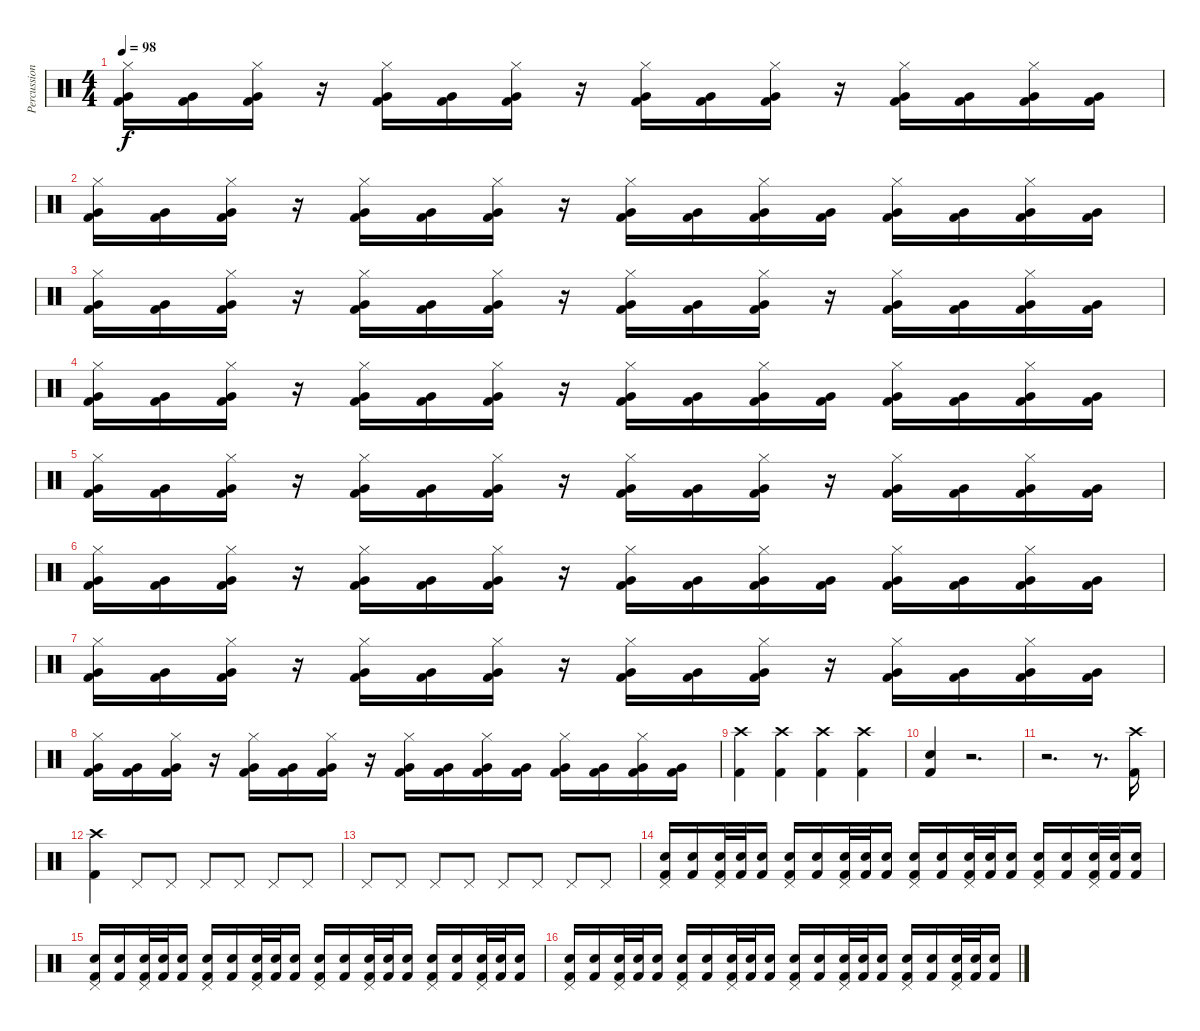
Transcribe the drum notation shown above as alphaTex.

\track ("Percussion" "Percussion") {instrument percussion}
\staff {score}
\articulation defaults
\ts (4 4)
\tempo 98
\clef neutral
\ks c
("Hi-Hat (closed)" "Very Low Tom (hit)" "Kick (hit) 2").16{dy f} ("Very Low Tom (hit)" "Kick (hit) 2").16 ("Hi-Hat (closed)" "Very Low Tom (hit)" "Kick (hit) 2").16 r.16 ("Hi-Hat (closed)" "Very Low Tom (hit)" "Kick (hit) 2").16 ("Very Low Tom (hit)" "Kick (hit) 2").16 ("Hi-Hat (closed)" "Very Low Tom (hit)" "Kick (hit) 2").16 r.16 ("Hi-Hat (closed)" "Very Low Tom (hit)" "Kick (hit) 2").16 ("Very Low Tom (hit)" "Kick (hit) 2").16 ("Hi-Hat (closed)" "Very Low Tom (hit)" "Kick (hit) 2").16 r.16 ("Hi-Hat (closed)" "Very Low Tom (hit)" "Kick (hit) 2").16 ("Very Low Tom (hit)" "Kick (hit) 2").16 ("Hi-Hat (closed)" "Very Low Tom (hit)" "Kick (hit) 2").16 ("Very Low Tom (hit)" "Kick (hit) 2").16 |
("Hi-Hat (closed)" "Very Low Tom (hit)" "Kick (hit) 2").16 ("Very Low Tom (hit)" "Kick (hit) 2").16 ("Hi-Hat (closed)" "Very Low Tom (hit)" "Kick (hit) 2").16 r.16 ("Hi-Hat (closed)" "Very Low Tom (hit)" "Kick (hit) 2").16 ("Very Low Tom (hit)" "Kick (hit) 2").16 ("Hi-Hat (closed)" "Very Low Tom (hit)" "Kick (hit) 2").16 r.16 ("Hi-Hat (closed)" "Very Low Tom (hit)" "Kick (hit) 2").16 ("Very Low Tom (hit)" "Kick (hit) 2").16 ("Hi-Hat (closed)" "Very Low Tom (hit)" "Kick (hit) 2").16 ("Very Low Tom (hit)" "Kick (hit) 2").16 ("Hi-Hat (closed)" "Very Low Tom (hit)" "Kick (hit) 2").16 ("Very Low Tom (hit)" "Kick (hit) 2").16 ("Hi-Hat (closed)" "Very Low Tom (hit)" "Kick (hit) 2").16 ("Very Low Tom (hit)" "Kick (hit) 2").16 |
("Hi-Hat (closed)" "Very Low Tom (hit)" "Kick (hit) 2").16 ("Very Low Tom (hit)" "Kick (hit) 2").16 ("Hi-Hat (closed)" "Very Low Tom (hit)" "Kick (hit) 2").16 r.16 ("Hi-Hat (closed)" "Very Low Tom (hit)" "Kick (hit) 2").16 ("Very Low Tom (hit)" "Kick (hit) 2").16 ("Hi-Hat (closed)" "Very Low Tom (hit)" "Kick (hit) 2").16 r.16 ("Hi-Hat (closed)" "Very Low Tom (hit)" "Kick (hit) 2").16 ("Very Low Tom (hit)" "Kick (hit) 2").16 ("Hi-Hat (closed)" "Very Low Tom (hit)" "Kick (hit) 2").16 r.16 ("Hi-Hat (closed)" "Very Low Tom (hit)" "Kick (hit) 2").16 ("Very Low Tom (hit)" "Kick (hit) 2").16 ("Hi-Hat (closed)" "Very Low Tom (hit)" "Kick (hit) 2").16 ("Very Low Tom (hit)" "Kick (hit) 2").16 |
("Hi-Hat (closed)" "Very Low Tom (hit)" "Kick (hit) 2").16 ("Very Low Tom (hit)" "Kick (hit) 2").16 ("Hi-Hat (closed)" "Very Low Tom (hit)" "Kick (hit) 2").16 r.16 ("Hi-Hat (closed)" "Very Low Tom (hit)" "Kick (hit) 2").16 ("Very Low Tom (hit)" "Kick (hit) 2").16 ("Hi-Hat (closed)" "Very Low Tom (hit)" "Kick (hit) 2").16 r.16 ("Hi-Hat (closed)" "Very Low Tom (hit)" "Kick (hit) 2").16 ("Very Low Tom (hit)" "Kick (hit) 2").16 ("Hi-Hat (closed)" "Very Low Tom (hit)" "Kick (hit) 2").16 ("Very Low Tom (hit)" "Kick (hit) 2").16 ("Hi-Hat (closed)" "Very Low Tom (hit)" "Kick (hit) 2").16 ("Very Low Tom (hit)" "Kick (hit) 2").16 ("Hi-Hat (closed)" "Very Low Tom (hit)" "Kick (hit) 2").16 ("Very Low Tom (hit)" "Kick (hit) 2").16 |
("Hi-Hat (closed)" "Very Low Tom (hit)" "Kick (hit) 2").16 ("Very Low Tom (hit)" "Kick (hit) 2").16 ("Hi-Hat (closed)" "Very Low Tom (hit)" "Kick (hit) 2").16 r.16 ("Hi-Hat (closed)" "Very Low Tom (hit)" "Kick (hit) 2").16 ("Very Low Tom (hit)" "Kick (hit) 2").16 ("Hi-Hat (closed)" "Very Low Tom (hit)" "Kick (hit) 2").16 r.16 ("Hi-Hat (closed)" "Very Low Tom (hit)" "Kick (hit) 2").16 ("Very Low Tom (hit)" "Kick (hit) 2").16 ("Hi-Hat (closed)" "Very Low Tom (hit)" "Kick (hit) 2").16 r.16 ("Hi-Hat (closed)" "Very Low Tom (hit)" "Kick (hit) 2").16 ("Very Low Tom (hit)" "Kick (hit) 2").16 ("Hi-Hat (closed)" "Very Low Tom (hit)" "Kick (hit) 2").16 ("Very Low Tom (hit)" "Kick (hit) 2").16 |
("Hi-Hat (closed)" "Very Low Tom (hit)" "Kick (hit) 2").16 ("Very Low Tom (hit)" "Kick (hit) 2").16 ("Hi-Hat (closed)" "Very Low Tom (hit)" "Kick (hit) 2").16 r.16 ("Hi-Hat (closed)" "Very Low Tom (hit)" "Kick (hit) 2").16 ("Very Low Tom (hit)" "Kick (hit) 2").16 ("Hi-Hat (closed)" "Very Low Tom (hit)" "Kick (hit) 2").16 r.16 ("Hi-Hat (closed)" "Very Low Tom (hit)" "Kick (hit) 2").16 ("Very Low Tom (hit)" "Kick (hit) 2").16 ("Hi-Hat (closed)" "Very Low Tom (hit)" "Kick (hit) 2").16 ("Very Low Tom (hit)" "Kick (hit) 2").16 ("Hi-Hat (closed)" "Very Low Tom (hit)" "Kick (hit) 2").16 ("Very Low Tom (hit)" "Kick (hit) 2").16 ("Hi-Hat (closed)" "Very Low Tom (hit)" "Kick (hit) 2").16 ("Very Low Tom (hit)" "Kick (hit) 2").16 |
("Hi-Hat (closed)" "Very Low Tom (hit)" "Kick (hit) 2").16 ("Very Low Tom (hit)" "Kick (hit) 2").16 ("Hi-Hat (closed)" "Very Low Tom (hit)" "Kick (hit) 2").16 r.16 ("Hi-Hat (closed)" "Very Low Tom (hit)" "Kick (hit) 2").16 ("Very Low Tom (hit)" "Kick (hit) 2").16 ("Hi-Hat (closed)" "Very Low Tom (hit)" "Kick (hit) 2").16 r.16 ("Hi-Hat (closed)" "Very Low Tom (hit)" "Kick (hit) 2").16 ("Very Low Tom (hit)" "Kick (hit) 2").16 ("Hi-Hat (closed)" "Very Low Tom (hit)" "Kick (hit) 2").16 r.16 ("Hi-Hat (closed)" "Very Low Tom (hit)" "Kick (hit) 2").16 ("Very Low Tom (hit)" "Kick (hit) 2").16 ("Hi-Hat (closed)" "Very Low Tom (hit)" "Kick (hit) 2").16 ("Very Low Tom (hit)" "Kick (hit) 2").16 |
("Hi-Hat (closed)" "Very Low Tom (hit)" "Kick (hit) 2").16 ("Very Low Tom (hit)" "Kick (hit) 2").16 ("Hi-Hat (closed)" "Very Low Tom (hit)" "Kick (hit) 2").16 r.16 ("Hi-Hat (closed)" "Very Low Tom (hit)" "Kick (hit) 2").16 ("Very Low Tom (hit)" "Kick (hit) 2").16 ("Hi-Hat (closed)" "Very Low Tom (hit)" "Kick (hit) 2").16 r.16 ("Hi-Hat (closed)" "Very Low Tom (hit)" "Kick (hit) 2").16 ("Very Low Tom (hit)" "Kick (hit) 2").16 ("Hi-Hat (closed)" "Very Low Tom (hit)" "Kick (hit) 2").16 ("Very Low Tom (hit)" "Kick (hit) 2").16 ("Hi-Hat (closed)" "Very Low Tom (hit)" "Kick (hit) 2").16 ("Very Low Tom (hit)" "Kick (hit) 2").16 ("Hi-Hat (closed)" "Very Low Tom (hit)" "Kick (hit) 2").16 ("Very Low Tom (hit)" "Kick (hit) 2").16 |
("Crash high (hit)" "Kick (hit) 2").4 ("Crash high (hit)" "Kick (hit) 2").4 ("Crash high (hit)" "Kick (hit) 2").4 ("Crash high (hit)" "Kick (hit) 2").4 |
("Snare (hit) 2" "Kick (hit) 2").4 r.2{d} |
r.2{d} r.8{d} ("Crash high (hit)" "Kick (hit) 2").16 |
("Crash high (hit)" "Kick (hit) 2").4 "Pedal Hi-Hat (hit)".8 "Pedal Hi-Hat (hit)".8 "Pedal Hi-Hat (hit)".8 "Pedal Hi-Hat (hit)".8 "Pedal Hi-Hat (hit)".8 "Pedal Hi-Hat (hit)".8 |
"Pedal Hi-Hat (hit)".8 "Pedal Hi-Hat (hit)".8 "Pedal Hi-Hat (hit)".8 "Pedal Hi-Hat (hit)".8 "Pedal Hi-Hat (hit)".8 "Pedal Hi-Hat (hit)".8 "Pedal Hi-Hat (hit)".8 "Pedal Hi-Hat (hit)".8 |
("Pedal Hi-Hat (hit)" "Snare (hit) 2" "Kick (hit) 2").16 ("Snare (hit) 2" "Kick (hit) 2").16 ("Pedal Hi-Hat (hit)" "Snare (hit) 2" "Kick (hit) 2").32 ("Snare (hit) 2" "Kick (hit) 2").32 ("Snare (hit) 2" "Kick (hit) 2").16 ("Pedal Hi-Hat (hit)" "Snare (hit) 2" "Kick (hit) 2").16 ("Snare (hit) 2" "Kick (hit) 2").16 ("Pedal Hi-Hat (hit)" "Snare (hit) 2" "Kick (hit) 2").32 ("Snare (hit) 2" "Kick (hit) 2").32 ("Snare (hit) 2" "Kick (hit) 2").16 ("Pedal Hi-Hat (hit)" "Snare (hit) 2" "Kick (hit) 2").16 ("Snare (hit) 2" "Kick (hit) 2").16 ("Pedal Hi-Hat (hit)" "Snare (hit) 2" "Kick (hit) 2").32 ("Snare (hit) 2" "Kick (hit) 2").32 ("Snare (hit) 2" "Kick (hit) 2").16 ("Pedal Hi-Hat (hit)" "Snare (hit) 2" "Kick (hit) 2").16 ("Snare (hit) 2" "Kick (hit) 2").16 ("Pedal Hi-Hat (hit)" "Snare (hit) 2" "Kick (hit) 2").32 ("Snare (hit) 2" "Kick (hit) 2").32 ("Snare (hit) 2" "Kick (hit) 2").16 |
("Pedal Hi-Hat (hit)" "Snare (hit) 2" "Kick (hit) 2").16 ("Snare (hit) 2" "Kick (hit) 2").16 ("Pedal Hi-Hat (hit)" "Snare (hit) 2" "Kick (hit) 2").32 ("Snare (hit) 2" "Kick (hit) 2").32 ("Snare (hit) 2" "Kick (hit) 2").16 ("Pedal Hi-Hat (hit)" "Snare (hit) 2" "Kick (hit) 2").16 ("Snare (hit) 2" "Kick (hit) 2").16 ("Pedal Hi-Hat (hit)" "Snare (hit) 2" "Kick (hit) 2").32 ("Snare (hit) 2" "Kick (hit) 2").32 ("Snare (hit) 2" "Kick (hit) 2").16 ("Pedal Hi-Hat (hit)" "Snare (hit) 2" "Kick (hit) 2").16 ("Snare (hit) 2" "Kick (hit) 2").16 ("Pedal Hi-Hat (hit)" "Snare (hit) 2" "Kick (hit) 2").32 ("Snare (hit) 2" "Kick (hit) 2").32 ("Snare (hit) 2" "Kick (hit) 2").16 ("Pedal Hi-Hat (hit)" "Snare (hit) 2" "Kick (hit) 2").16 ("Snare (hit) 2" "Kick (hit) 2").16 ("Pedal Hi-Hat (hit)" "Snare (hit) 2" "Kick (hit) 2").32 ("Snare (hit) 2" "Kick (hit) 2").32 ("Snare (hit) 2" "Kick (hit) 2").16 |
("Pedal Hi-Hat (hit)" "Snare (hit) 2" "Kick (hit) 2").16 ("Snare (hit) 2" "Kick (hit) 2").16 ("Pedal Hi-Hat (hit)" "Snare (hit) 2" "Kick (hit) 2").32 ("Snare (hit) 2" "Kick (hit) 2").32 ("Snare (hit) 2" "Kick (hit) 2").16 ("Pedal Hi-Hat (hit)" "Snare (hit) 2" "Kick (hit) 2").16 ("Snare (hit) 2" "Kick (hit) 2").16 ("Pedal Hi-Hat (hit)" "Snare (hit) 2" "Kick (hit) 2").32 ("Snare (hit) 2" "Kick (hit) 2").32 ("Snare (hit) 2" "Kick (hit) 2").16 ("Pedal Hi-Hat (hit)" "Snare (hit) 2" "Kick (hit) 2").16 ("Snare (hit) 2" "Kick (hit) 2").16 ("Pedal Hi-Hat (hit)" "Snare (hit) 2" "Kick (hit) 2").32 ("Snare (hit) 2" "Kick (hit) 2").32 ("Snare (hit) 2" "Kick (hit) 2").16 ("Pedal Hi-Hat (hit)" "Snare (hit) 2" "Kick (hit) 2").16 ("Snare (hit) 2" "Kick (hit) 2").16 ("Pedal Hi-Hat (hit)" "Snare (hit) 2" "Kick (hit) 2").32 ("Snare (hit) 2" "Kick (hit) 2").32 ("Snare (hit) 2" "Kick (hit) 2").16
